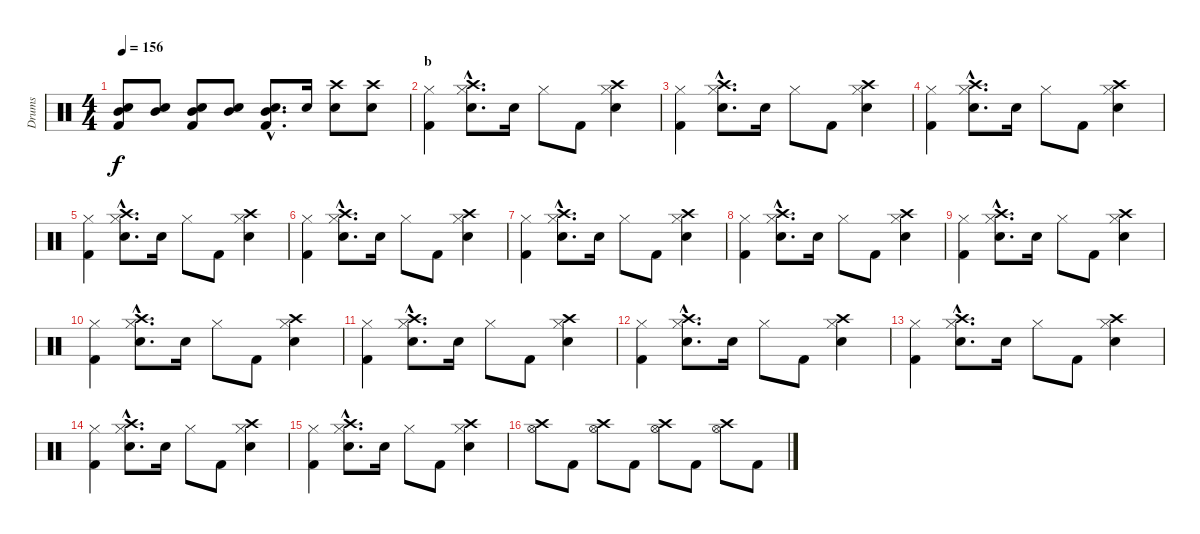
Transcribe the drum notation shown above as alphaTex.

\track ("Drums" "Drums") {instrument percussion}
\staff {score}
\articulation defaults
\ts (4 4)
\tempo 156
\clef neutral
\ks c
("Mid Tom (hit)" "Snare (hit) 2" "Kick (hit) 2").8{dy f} ("Mid Tom (hit)" "Snare (hit) 2").8 ("Mid Tom (hit)" "Snare (hit) 2" "Kick (hit) 2").8 ("Mid Tom (hit)" "Snare (hit) 2").8 ("Mid Tom (hit)"{hac} "Snare (hit) 2"{hac} "Kick (hit) 2"{hac}).8{d} "Snare (hit) 2".16 ("Crash high (hit)" "Snare (hit) 2").8 ("Crash high (hit)" "Snare (hit) 2").8 |
\section ("" "b")
("Hi-Hat (closed)" "Kick (hit) 2").4 ("Crash high (hit)"{hac} "Hi-Hat (closed)"{hac} "Snare (hit) 2"{hac}).8{d} "Snare (hit) 2".16 "Hi-Hat (closed)".8 "Kick (hit) 2".8 ("Crash high (hit)" "Hi-Hat (closed)" "Snare (hit) 2").4 |
("Hi-Hat (closed)" "Kick (hit) 2").4 ("Crash high (hit)"{hac} "Hi-Hat (closed)"{hac} "Snare (hit) 2"{hac}).8{d} "Snare (hit) 2".16 "Hi-Hat (closed)".8 "Kick (hit) 2".8 ("Crash high (hit)" "Hi-Hat (closed)" "Snare (hit) 2").4 |
("Hi-Hat (closed)" "Kick (hit) 2").4 ("Crash high (hit)"{hac} "Hi-Hat (closed)"{hac} "Snare (hit) 2"{hac}).8{d} "Snare (hit) 2".16 "Hi-Hat (closed)".8 "Kick (hit) 2".8 ("Crash high (hit)" "Hi-Hat (closed)" "Snare (hit) 2").4 |
("Hi-Hat (closed)" "Kick (hit) 2").4 ("Crash high (hit)"{hac} "Hi-Hat (closed)"{hac} "Snare (hit) 2"{hac}).8{d} "Snare (hit) 2".16 "Hi-Hat (closed)".8 "Kick (hit) 2".8 ("Crash high (hit)" "Hi-Hat (closed)" "Snare (hit) 2").4 |
("Hi-Hat (closed)" "Kick (hit) 2").4 ("Crash high (hit)"{hac} "Hi-Hat (closed)"{hac} "Snare (hit) 2"{hac}).8{d} "Snare (hit) 2".16 "Hi-Hat (closed)".8 "Kick (hit) 2".8 ("Crash high (hit)" "Hi-Hat (closed)" "Snare (hit) 2").4 |
("Hi-Hat (closed)" "Kick (hit) 2").4 ("Crash high (hit)"{hac} "Hi-Hat (closed)"{hac} "Snare (hit) 2"{hac}).8{d} "Snare (hit) 2".16 "Hi-Hat (closed)".8 "Kick (hit) 2".8 ("Crash high (hit)" "Hi-Hat (closed)" "Snare (hit) 2").4 |
("Hi-Hat (closed)" "Kick (hit) 2").4 ("Crash high (hit)"{hac} "Hi-Hat (closed)"{hac} "Snare (hit) 2"{hac}).8{d} "Snare (hit) 2".16 "Hi-Hat (closed)".8 "Kick (hit) 2".8 ("Crash high (hit)" "Hi-Hat (closed)" "Snare (hit) 2").4 |
("Hi-Hat (closed)" "Kick (hit) 2").4 ("Crash high (hit)"{hac} "Hi-Hat (closed)"{hac} "Snare (hit) 2"{hac}).8{d} "Snare (hit) 2".16 "Hi-Hat (closed)".8 "Kick (hit) 2".8 ("Crash high (hit)" "Hi-Hat (closed)" "Snare (hit) 2").4 |
("Hi-Hat (closed)" "Kick (hit) 2").4 ("Crash high (hit)"{hac} "Hi-Hat (closed)"{hac} "Snare (hit) 2"{hac}).8{d} "Snare (hit) 2".16 "Hi-Hat (closed)".8 "Kick (hit) 2".8 ("Crash high (hit)" "Hi-Hat (closed)" "Snare (hit) 2").4 |
("Hi-Hat (closed)" "Kick (hit) 2").4 ("Crash high (hit)"{hac} "Hi-Hat (closed)"{hac} "Snare (hit) 2"{hac}).8{d} "Snare (hit) 2".16 "Hi-Hat (closed)".8 "Kick (hit) 2".8 ("Crash high (hit)" "Hi-Hat (closed)" "Snare (hit) 2").4 |
("Hi-Hat (closed)" "Kick (hit) 2").4 ("Crash high (hit)"{hac} "Hi-Hat (closed)"{hac} "Snare (hit) 2"{hac}).8{d} "Snare (hit) 2".16 "Hi-Hat (closed)".8 "Kick (hit) 2".8 ("Crash high (hit)" "Hi-Hat (closed)" "Snare (hit) 2").4 |
("Hi-Hat (closed)" "Kick (hit) 2").4 ("Crash high (hit)"{hac} "Hi-Hat (closed)"{hac} "Snare (hit) 2"{hac}).8{d} "Snare (hit) 2".16 "Hi-Hat (closed)".8 "Kick (hit) 2".8 ("Crash high (hit)" "Hi-Hat (closed)" "Snare (hit) 2").4 |
("Hi-Hat (closed)" "Kick (hit) 2").4 ("Crash high (hit)"{hac} "Hi-Hat (closed)"{hac} "Snare (hit) 2"{hac}).8{d} "Snare (hit) 2".16 "Hi-Hat (closed)".8 "Kick (hit) 2".8 ("Crash high (hit)" "Hi-Hat (closed)" "Snare (hit) 2").4 |
("Hi-Hat (closed)" "Kick (hit) 2").4 ("Crash high (hit)"{hac} "Hi-Hat (closed)"{hac} "Snare (hit) 2"{hac}).8{d} "Snare (hit) 2".16 "Hi-Hat (closed)".8 "Kick (hit) 2".8 ("Crash high (hit)" "Hi-Hat (closed)" "Snare (hit) 2").4 |
("Crash high (hit)" "Hi-Hat (open)").8 "Kick (hit) 2".8 ("Crash high (hit)" "Hi-Hat (open)").8 "Kick (hit) 2".8 ("Crash high (hit)" "Hi-Hat (open)").8 "Kick (hit) 2".8 ("Crash high (hit)" "Hi-Hat (open)").8 "Kick (hit) 2".8
